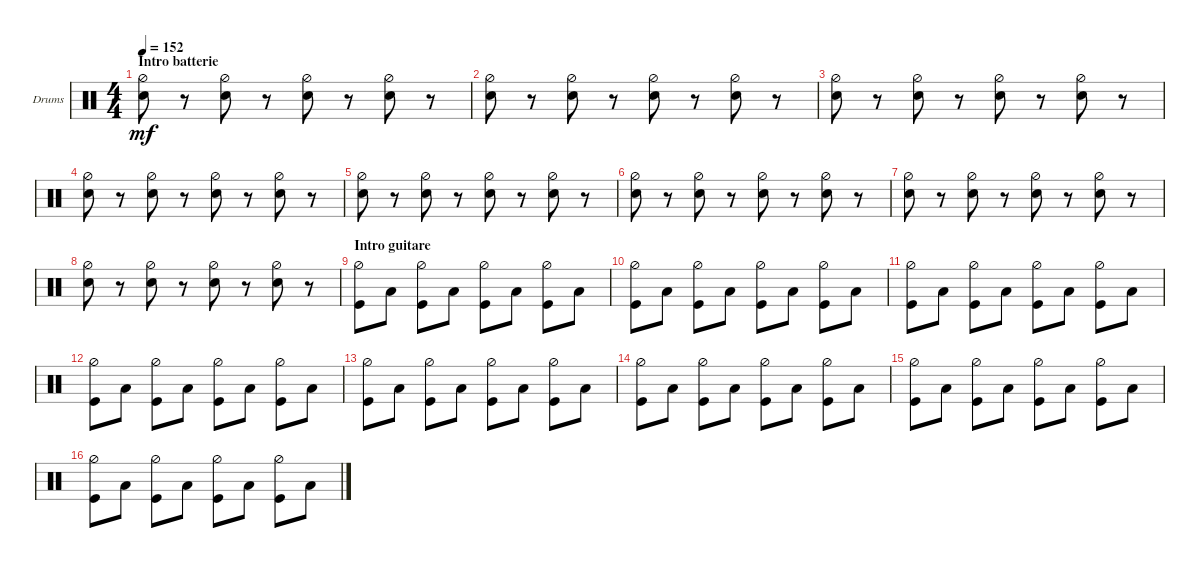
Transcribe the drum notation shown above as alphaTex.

\defaultSystemsLayout 4
\bracketExtendMode groupsimilarinstruments
\firstSystemTrackNameOrientation horizontal
\otherSystemsTrackNameOrientation horizontal
\track ("Dre Drum" "Drums") {instrument percussion}
\staff {score}
\articulation defaults
\ts (4 4)
\section ("" "Intro batterie")
\tempo 152
\clef neutral
\ks c
("Hi-Hat (half)" "Snare (hit) 2").8{dy mf} r.8 ("Hi-Hat (half)" "Snare (hit) 2").8 r.8 ("Hi-Hat (half)" "Snare (hit) 2").8 r.8 ("Hi-Hat (half)" "Snare (hit) 2").8 r.8 |
("Hi-Hat (half)" "Snare (hit) 2").8 r.8 ("Hi-Hat (half)" "Snare (hit) 2").8 r.8 ("Hi-Hat (half)" "Snare (hit) 2").8 r.8 ("Hi-Hat (half)" "Snare (hit) 2").8 r.8 |
("Hi-Hat (half)" "Snare (hit) 2").8 r.8 ("Hi-Hat (half)" "Snare (hit) 2").8 r.8 ("Hi-Hat (half)" "Snare (hit) 2").8 r.8 ("Hi-Hat (half)" "Snare (hit) 2").8 r.8 |
("Hi-Hat (half)" "Snare (hit) 2").8 r.8 ("Hi-Hat (half)" "Snare (hit) 2").8 r.8 ("Hi-Hat (half)" "Snare (hit) 2").8 r.8 ("Hi-Hat (half)" "Snare (hit) 2").8 r.8 |
("Hi-Hat (half)" "Snare (hit) 2").8 r.8 ("Hi-Hat (half)" "Snare (hit) 2").8 r.8 ("Hi-Hat (half)" "Snare (hit) 2").8 r.8 ("Hi-Hat (half)" "Snare (hit) 2").8 r.8 |
("Hi-Hat (half)" "Snare (hit) 2").8 r.8 ("Hi-Hat (half)" "Snare (hit) 2").8 r.8 ("Hi-Hat (half)" "Snare (hit) 2").8 r.8 ("Hi-Hat (half)" "Snare (hit) 2").8 r.8 |
("Hi-Hat (half)" "Snare (hit) 2").8 r.8 ("Hi-Hat (half)" "Snare (hit) 2").8 r.8 ("Hi-Hat (half)" "Snare (hit) 2").8 r.8 ("Hi-Hat (half)" "Snare (hit) 2").8 r.8 |
("Hi-Hat (half)" "Snare (hit) 2").8 r.8 ("Hi-Hat (half)" "Snare (hit) 2").8 r.8 ("Hi-Hat (half)" "Snare (hit) 2").8 r.8 ("Hi-Hat (half)" "Snare (hit) 2").8 r.8 |
\section ("" "Intro guitare")
("Kick (hit)" "Hi-Hat (half)").8 "Low Tom (hit)".8 ("Kick (hit)" "Hi-Hat (half)").8 "Low Tom (hit)".8 ("Kick (hit)" "Hi-Hat (half)").8 "Low Tom (hit)".8 ("Kick (hit)" "Hi-Hat (half)").8 "Low Tom (hit)".8 |
("Kick (hit)" "Hi-Hat (half)").8 "Low Tom (hit)".8 ("Kick (hit)" "Hi-Hat (half)").8 "Low Tom (hit)".8 ("Kick (hit)" "Hi-Hat (half)").8 "Low Tom (hit)".8 ("Kick (hit)" "Hi-Hat (half)").8 "Low Tom (hit)".8 |
("Kick (hit)" "Hi-Hat (half)").8 "Low Tom (hit)".8 ("Kick (hit)" "Hi-Hat (half)").8 "Low Tom (hit)".8 ("Kick (hit)" "Hi-Hat (half)").8 "Low Tom (hit)".8 ("Kick (hit)" "Hi-Hat (half)").8 "Low Tom (hit)".8 |
("Kick (hit)" "Hi-Hat (half)").8 "Low Tom (hit)".8 ("Kick (hit)" "Hi-Hat (half)").8 "Low Tom (hit)".8 ("Kick (hit)" "Hi-Hat (half)").8 "Low Tom (hit)".8 ("Kick (hit)" "Hi-Hat (half)").8 "Low Tom (hit)".8 |
("Kick (hit)" "Hi-Hat (half)").8 "Low Tom (hit)".8 ("Kick (hit)" "Hi-Hat (half)").8 "Low Tom (hit)".8 ("Kick (hit)" "Hi-Hat (half)").8 "Low Tom (hit)".8 ("Kick (hit)" "Hi-Hat (half)").8 "Low Tom (hit)".8 |
("Kick (hit)" "Hi-Hat (half)").8 "Low Tom (hit)".8 ("Kick (hit)" "Hi-Hat (half)").8 "Low Tom (hit)".8 ("Kick (hit)" "Hi-Hat (half)").8 "Low Tom (hit)".8 ("Kick (hit)" "Hi-Hat (half)").8 "Low Tom (hit)".8 |
("Kick (hit)" "Hi-Hat (half)").8 "Low Tom (hit)".8 ("Kick (hit)" "Hi-Hat (half)").8 "Low Tom (hit)".8 ("Kick (hit)" "Hi-Hat (half)").8 "Low Tom (hit)".8 ("Kick (hit)" "Hi-Hat (half)").8 "Low Tom (hit)".8 |
("Kick (hit)" "Hi-Hat (half)").8 "Low Tom (hit)".8 ("Kick (hit)" "Hi-Hat (half)").8 "Low Tom (hit)".8 ("Kick (hit)" "Hi-Hat (half)").8 "Low Tom (hit)".8 ("Kick (hit)" "Hi-Hat (half)").8 "Low Tom (hit)".8
